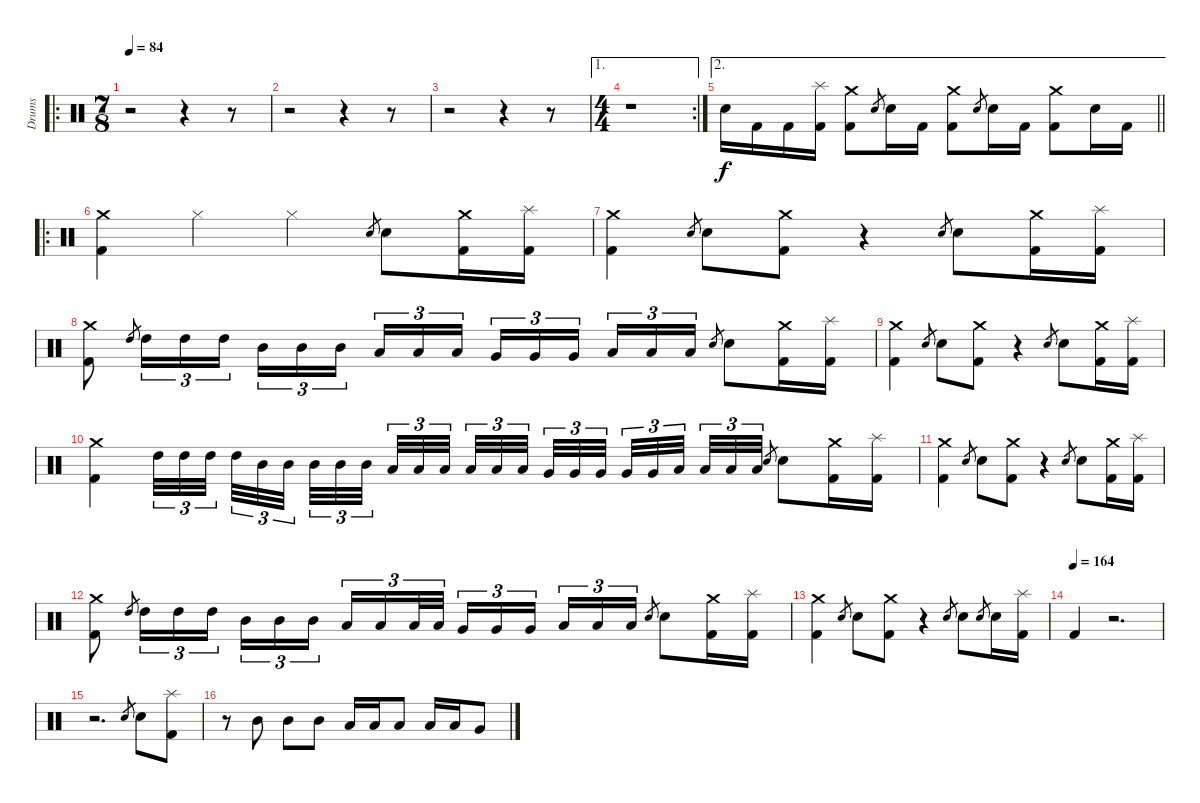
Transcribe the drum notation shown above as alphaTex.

\track ("Drums" "Drums") {instrument percussion}
\staff {score}
\articulation defaults
\ro
\ts (7 8)
\tempo 84
\clef neutral
\ks c
r.2{dy f} r.4 r.8 |
r.2 r.4 r.8 |
r.2 r.4 r.8 |
\ae 1
\rc 2
\ts (4 4)
r.1 |
\ae 2
\barLineRight lightlight "Electric Snare (hit)".16 "Kick (hit) 2".16 "Kick (hit) 2".16
("Splash (hit)" "Kick (hit) 2").16 ("Crash medium (hit)" "Kick (hit) 2").8 "Electric Snare (hit)".8{gr} "Electric Snare (hit)".16 "Kick (hit) 2".16 ("Crash medium (hit)" "Kick (hit) 2").8 "Electric Snare (hit)".8{gr} "Electric Snare (hit)".16 "Kick (hit) 2".16 ("Crash medium (hit)" "Kick (hit) 2").8 "Electric Snare (hit)".16 "Kick (hit) 2".16 |
\ro
("Crash medium (hit)" "Kick (hit) 2").4 "Hi-Hat (closed)".4 "Hi-Hat (closed)".4 "Electric Snare (hit)".8{gr} "Electric Snare (hit)".8 ("Crash medium (hit)" "Kick (hit) 2").16 ("Splash (hit)" "Kick (hit) 2").16 |
("Crash medium (hit)" "Kick (hit) 2").4 "Electric Snare (hit)".8{gr} "Electric Snare (hit)".8 ("Crash medium (hit)" "Kick (hit) 2").8 r.4 "Electric Snare (hit)".8{gr} "Electric Snare (hit)".8 ("Crash medium (hit)" "Kick (hit) 2").16 ("Splash (hit)" "Kick (hit) 2").16 |
("Crash medium (hit)" "Kick (hit) 2").8 "High Tom (hit)".8{gr} "High Tom (hit)".16{tu (3 2)} "High Tom (hit)".16{tu (3 2)} "High Tom (hit)".16{tu (3 2)} "Mid Tom (hit)".16{tu (3 2)} "Mid Tom (hit)".16{tu (3 2)} "Mid Tom (hit)".16{tu (3 2) beam splitsecondary} "Low Tom (hit)".16{tu (3 2)} "Low Tom (hit)".16{tu (3 2)} "Low Tom (hit)".16{tu (3 2)} "Very Low Tom (hit)".16{tu (3 2)} "Very Low Tom (hit)".16{tu (3 2)} "Very Low Tom (hit)".16{tu (3 2) beam splitsecondary} "Low Floor Tom (hit)".16{tu (3 2)} "Low Floor Tom (hit)".16{tu (3 2)} "Low Floor Tom (hit)".16{tu (3 2)} "Electric Snare (hit)".8{gr} "Electric Snare (hit)".8 ("Crash medium (hit)" "Kick (hit) 2").16 ("Splash (hit)" "Kick (hit) 2").16 |
("Crash medium (hit)" "Kick (hit) 2").4 "Electric Snare (hit)".8{gr} "Electric Snare (hit)".8 ("Crash medium (hit)" "Kick (hit) 2").8 r.4 "Electric Snare (hit)".8{gr} "Electric Snare (hit)".8 ("Crash medium (hit)" "Kick (hit) 2").16 ("Splash (hit)" "Kick (hit) 2").16 |
("Crash medium (hit)" "Kick (hit) 2").4 "High Tom (hit)".32{tu (3 2)} "High Tom (hit)".32{tu (3 2)} "High Tom (hit)".32{tu (3 2) beam splitsecondary} "High Tom (hit)".32{tu (3 2)} "Mid Tom (hit)".32{tu (3 2)} "Mid Tom (hit)".32{tu (3 2) beam splitsecondary} "Mid Tom (hit)".32{tu (3 2)} "Mid Tom (hit)".32{tu (3 2)} "Mid Tom (hit)".32{tu (3 2) beam splitsecondary} "Low Tom (hit)".32{tu (3 2)} "Low Tom (hit)".32{tu (3 2)} "Low Tom (hit)".32{tu (3 2)} "Low Tom (hit)".32{tu (3 2)} "Low Tom (hit)".32{tu (3 2)} "Low Tom (hit)".32{tu (3 2) beam splitsecondary} "Very Low Tom (hit)".32{tu (3 2)} "Very Low Tom (hit)".32{tu (3 2)} "Very Low Tom (hit)".32{tu (3 2) beam splitsecondary} "Very Low Tom (hit)".32{tu (3 2)} "Very Low Tom (hit)".32{tu (3 2)} "Low Floor Tom (hit)".32{tu (3 2) beam splitsecondary} "Low Floor Tom (hit)".32{tu (3 2)} "Low Floor Tom (hit)".32{tu (3 2)} "Low Floor Tom (hit)".32{tu (3 2)} "Electric Snare (hit)".8{gr} "Electric Snare (hit)".8 ("Crash medium (hit)" "Kick (hit) 2").16 ("Splash (hit)" "Kick (hit) 2").16 |
("Crash medium (hit)" "Kick (hit) 2").4 "Electric Snare (hit)".8{gr} "Electric Snare (hit)".8 ("Crash medium (hit)" "Kick (hit) 2").8 r.4 "Electric Snare (hit)".8{gr} "Electric Snare (hit)".8 ("Crash medium (hit)" "Kick (hit) 2").16 ("Splash (hit)" "Kick (hit) 2").16 |
("Crash medium (hit)" "Kick (hit) 2").8 "High Tom (hit)".8{gr} "High Tom (hit)".16{tu (3 2)} "High Tom (hit)".16{tu (3 2)} "High Tom (hit)".16{tu (3 2)} "Mid Tom (hit)".16{tu (3 2)} "Mid Tom (hit)".16{tu (3 2)} "Mid Tom (hit)".16{tu (3 2) beam splitsecondary} "Low Tom (hit)".16{tu (3 2)} "Low Tom (hit)".16{tu (3 2)} "Low Tom (hit)".32{tu (3 2)} "Low Tom (hit)".32{tu (3 2)} "Very Low Tom (hit)".16{tu (3 2)} "Very Low Tom (hit)".16{tu (3 2)} "Very Low Tom (hit)".16{tu (3 2) beam splitsecondary} "Low Floor Tom (hit)".16{tu (3 2)} "Low Floor Tom (hit)".16{tu (3 2)} "Low Floor Tom (hit)".16{tu (3 2)} "Electric Snare (hit)".8{gr} "Electric Snare (hit)".8 ("Crash medium (hit)" "Kick (hit) 2").16 ("Splash (hit)" "Kick (hit) 2").16 |
("Crash medium (hit)" "Kick (hit) 2").4 "Electric Snare (hit)".8{gr} "Electric Snare (hit)".8 ("Crash medium (hit)" "Kick (hit) 2").8 r.4 "Electric Snare (hit)".8{gr} "Electric Snare (hit)".8 "Electric Snare (hit)".8{gr} "Electric Snare (hit)".16 ("Splash (hit)" "Kick (hit) 2").16 |
\tempo (164)
"Kick (hit) 2".4 r.2{d} |
r.2{d} "Electric Snare (hit)".8{gr} "Electric Snare (hit)".8 ("Splash (hit)" "Kick (hit) 2").8 |
r.8 "Mid Tom (hit)".8 "Mid Tom (hit)".8 "Mid Tom (hit)".8 "Low Tom (hit)".16 "Low Tom (hit)".16 "Low Tom (hit)".8 "Low Tom (hit)".16 "Low Tom (hit)".16 "Very Low Tom (hit)".8
